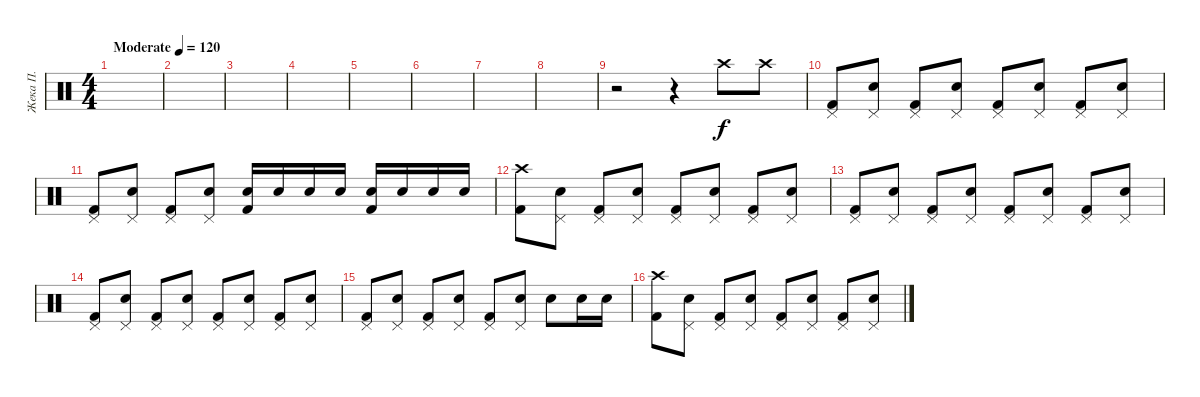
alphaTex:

\track ("Жека П." "Жека П.") {instrument percussion}
\staff {score}
\articulation defaults
\ts (4 4)
\tempo (120 "Moderate")
\clef neutral
\ks c
|
|
|
|
|
|
|
|
r.2 r.4 "Crash high (hit)".8 "Crash high (hit)".8 |
("Pedal Hi-Hat (hit)" "Kick (hit) 2").8 ("Pedal Hi-Hat (hit)" "Snare (hit) 2").8 ("Pedal Hi-Hat (hit)" "Kick (hit) 2").8 ("Pedal Hi-Hat (hit)" "Snare (hit) 2").8 ("Pedal Hi-Hat (hit)" "Kick (hit) 2").8 ("Pedal Hi-Hat (hit)" "Snare (hit) 2").8 ("Pedal Hi-Hat (hit)" "Kick (hit) 2").8 ("Pedal Hi-Hat (hit)" "Snare (hit) 2").8 |
("Pedal Hi-Hat (hit)" "Kick (hit) 2").8 ("Pedal Hi-Hat (hit)" "Snare (hit) 2").8 ("Pedal Hi-Hat (hit)" "Kick (hit) 2").8 ("Pedal Hi-Hat (hit)" "Snare (hit) 2").8 ("Snare (hit) 2" "Kick (hit) 2").16 "Snare (hit) 2".16 "Snare (hit) 2".16 "Snare (hit) 2".16 ("Snare (hit) 2" "Kick (hit) 2").16 "Snare (hit) 2".16 "Snare (hit) 2".16 "Snare (hit) 2".16 |
("Crash high (hit)" "Kick (hit) 2").8 ("Pedal Hi-Hat (hit)" "Snare (hit) 2").8 ("Pedal Hi-Hat (hit)" "Kick (hit) 2").8 ("Pedal Hi-Hat (hit)" "Snare (hit) 2").8 ("Pedal Hi-Hat (hit)" "Kick (hit) 2").8 ("Pedal Hi-Hat (hit)" "Snare (hit) 2").8 ("Pedal Hi-Hat (hit)" "Kick (hit) 2").8 ("Pedal Hi-Hat (hit)" "Snare (hit) 2").8 |
("Pedal Hi-Hat (hit)" "Kick (hit) 2").8 ("Pedal Hi-Hat (hit)" "Snare (hit) 2").8 ("Pedal Hi-Hat (hit)" "Kick (hit) 2").8 ("Pedal Hi-Hat (hit)" "Snare (hit) 2").8 ("Pedal Hi-Hat (hit)" "Kick (hit) 2").8 ("Pedal Hi-Hat (hit)" "Snare (hit) 2").8 ("Pedal Hi-Hat (hit)" "Kick (hit) 2").8 ("Pedal Hi-Hat (hit)" "Snare (hit) 2").8 |
("Pedal Hi-Hat (hit)" "Kick (hit) 2").8 ("Pedal Hi-Hat (hit)" "Snare (hit) 2").8 ("Pedal Hi-Hat (hit)" "Kick (hit) 2").8 ("Pedal Hi-Hat (hit)" "Snare (hit) 2").8 ("Pedal Hi-Hat (hit)" "Kick (hit) 2").8 ("Pedal Hi-Hat (hit)" "Snare (hit) 2").8 ("Pedal Hi-Hat (hit)" "Kick (hit) 2").8 ("Pedal Hi-Hat (hit)" "Snare (hit) 2").8 |
("Pedal Hi-Hat (hit)" "Kick (hit) 2").8 ("Pedal Hi-Hat (hit)" "Snare (hit) 2").8 ("Pedal Hi-Hat (hit)" "Kick (hit) 2").8 ("Pedal Hi-Hat (hit)" "Snare (hit) 2").8 ("Pedal Hi-Hat (hit)" "Kick (hit) 2").8 ("Pedal Hi-Hat (hit)" "Snare (hit) 2").8 "Snare (hit) 2".8 "Snare (hit) 2".16 "Snare (hit) 2".16 |
("Crash high (hit)" "Kick (hit) 2").8 ("Pedal Hi-Hat (hit)" "Snare (hit) 2").8 ("Pedal Hi-Hat (hit)" "Kick (hit) 2").8 ("Pedal Hi-Hat (hit)" "Snare (hit) 2").8 ("Pedal Hi-Hat (hit)" "Kick (hit) 2").8 ("Pedal Hi-Hat (hit)" "Snare (hit) 2").8 ("Pedal Hi-Hat (hit)" "Kick (hit) 2").8 ("Pedal Hi-Hat (hit)" "Snare (hit) 2").8
